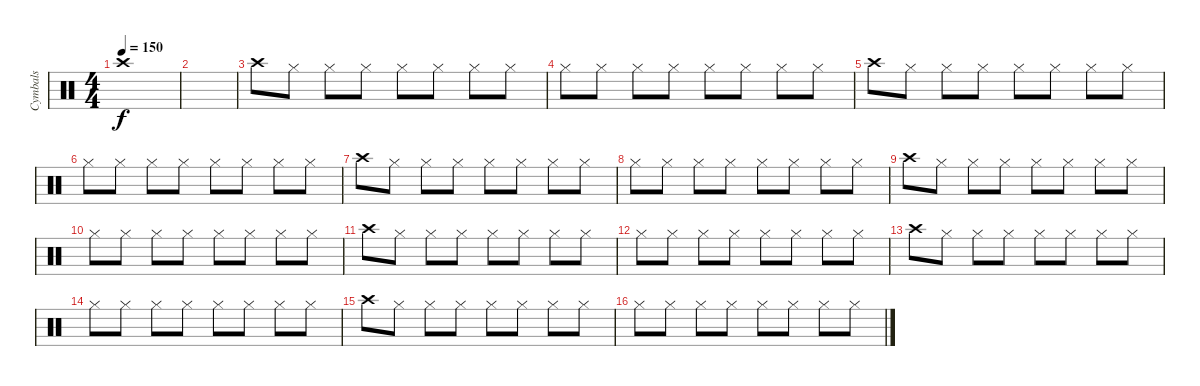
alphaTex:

\track ("Cymbals" "Cymbals") {instrument percussion}
\staff {score}
\articulation defaults
\ts (4 4)
\tempo 150
\clef neutral
\ks c "Crash high (hit)".1{dy f}
|
|
"Crash high (hit)".8 "Hi-Hat (closed)".8 "Hi-Hat (closed)".8 "Hi-Hat (closed)".8 "Hi-Hat (closed)".8 "Hi-Hat (closed)".8 "Hi-Hat (closed)".8 "Hi-Hat (closed)".8 |
"Hi-Hat (closed)".8 "Hi-Hat (closed)".8 "Hi-Hat (closed)".8 "Hi-Hat (closed)".8 "Hi-Hat (closed)".8 "Hi-Hat (closed)".8 "Hi-Hat (closed)".8 "Hi-Hat (closed)".8 |
"Crash high (hit)".8 "Hi-Hat (closed)".8 "Hi-Hat (closed)".8 "Hi-Hat (closed)".8 "Hi-Hat (closed)".8 "Hi-Hat (closed)".8 "Hi-Hat (closed)".8 "Hi-Hat (closed)".8 |
"Hi-Hat (closed)".8 "Hi-Hat (closed)".8 "Hi-Hat (closed)".8 "Hi-Hat (closed)".8 "Hi-Hat (closed)".8 "Hi-Hat (closed)".8 "Hi-Hat (closed)".8 "Hi-Hat (closed)".8 |
"Crash high (hit)".8 "Hi-Hat (closed)".8 "Hi-Hat (closed)".8 "Hi-Hat (closed)".8 "Hi-Hat (closed)".8 "Hi-Hat (closed)".8 "Hi-Hat (closed)".8 "Hi-Hat (closed)".8 |
"Hi-Hat (closed)".8 "Hi-Hat (closed)".8 "Hi-Hat (closed)".8 "Hi-Hat (closed)".8 "Hi-Hat (closed)".8 "Hi-Hat (closed)".8 "Hi-Hat (closed)".8 "Hi-Hat (closed)".8 |
"Crash high (hit)".8 "Hi-Hat (closed)".8 "Hi-Hat (closed)".8 "Hi-Hat (closed)".8 "Hi-Hat (closed)".8 "Hi-Hat (closed)".8 "Hi-Hat (closed)".8 "Hi-Hat (closed)".8 |
"Hi-Hat (closed)".8 "Hi-Hat (closed)".8 "Hi-Hat (closed)".8 "Hi-Hat (closed)".8 "Hi-Hat (closed)".8 "Hi-Hat (closed)".8 "Hi-Hat (closed)".8 "Hi-Hat (closed)".8 |
"Crash high (hit)".8 "Hi-Hat (closed)".8 "Hi-Hat (closed)".8 "Hi-Hat (closed)".8 "Hi-Hat (closed)".8 "Hi-Hat (closed)".8 "Hi-Hat (closed)".8 "Hi-Hat (closed)".8 |
"Hi-Hat (closed)".8 "Hi-Hat (closed)".8 "Hi-Hat (closed)".8 "Hi-Hat (closed)".8 "Hi-Hat (closed)".8 "Hi-Hat (closed)".8 "Hi-Hat (closed)".8 "Hi-Hat (closed)".8 |
"Crash high (hit)".8 "Hi-Hat (closed)".8 "Hi-Hat (closed)".8 "Hi-Hat (closed)".8 "Hi-Hat (closed)".8 "Hi-Hat (closed)".8 "Hi-Hat (closed)".8 "Hi-Hat (closed)".8 |
"Hi-Hat (closed)".8 "Hi-Hat (closed)".8 "Hi-Hat (closed)".8 "Hi-Hat (closed)".8 "Hi-Hat (closed)".8 "Hi-Hat (closed)".8 "Hi-Hat (closed)".8 "Hi-Hat (closed)".8 |
"Crash high (hit)".8 "Hi-Hat (closed)".8 "Hi-Hat (closed)".8 "Hi-Hat (closed)".8 "Hi-Hat (closed)".8 "Hi-Hat (closed)".8 "Hi-Hat (closed)".8 "Hi-Hat (closed)".8 |
"Hi-Hat (closed)".8 "Hi-Hat (closed)".8 "Hi-Hat (closed)".8 "Hi-Hat (closed)".8 "Hi-Hat (closed)".8 "Hi-Hat (closed)".8 "Hi-Hat (closed)".8 "Hi-Hat (closed)".8
